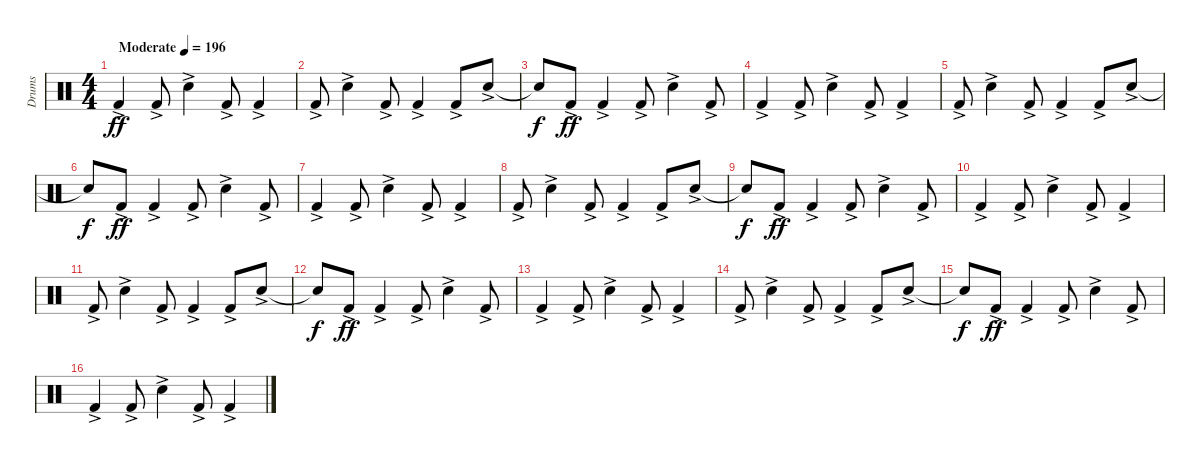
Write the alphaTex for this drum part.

\track ("Drums" "Drums") {instrument percussion}
\staff {score}
\articulation defaults
\ts (4 4)
\tempo (196 "Moderate")
\clef neutral
\ks c "Kick (hit) 2"{ac}.4{dy ff} "Kick (hit) 2"{ac}.8 "Electric Snare (hit)"{ac}.4 "Kick (hit) 2"{ac}.8 "Kick (hit) 2"{ac}.4
|
"Kick (hit) 2"{ac}.8 "Electric Snare (hit)"{ac}.4 "Kick (hit) 2"{ac}.8 "Kick (hit) 2"{ac}.4 "Kick (hit) 2"{ac}.8 "Electric Snare (hit)"{ac}.8 |
"Snare (hit)"{t}.8{dy f} "Kick (hit) 2"{ac}.8{dy ff} "Kick (hit) 2"{ac}.4 "Kick (hit) 2"{ac}.8 "Electric Snare (hit)"{ac}.4 "Kick (hit) 2"{ac}.8 |
"Kick (hit) 2"{ac}.4 "Kick (hit) 2"{ac}.8 "Electric Snare (hit)"{ac}.4 "Kick (hit) 2"{ac}.8 "Kick (hit) 2"{ac}.4 |
"Kick (hit) 2"{ac}.8 "Electric Snare (hit)"{ac}.4 "Kick (hit) 2"{ac}.8 "Kick (hit) 2"{ac}.4 "Kick (hit) 2"{ac}.8 "Electric Snare (hit)"{ac}.8 |
"Snare (hit)"{t}.8{dy f} "Kick (hit) 2"{ac}.8{dy ff} "Kick (hit) 2"{ac}.4 "Kick (hit) 2"{ac}.8 "Electric Snare (hit)"{ac}.4 "Kick (hit) 2"{ac}.8 |
"Kick (hit) 2"{ac}.4 "Kick (hit) 2"{ac}.8 "Electric Snare (hit)"{ac}.4 "Kick (hit) 2"{ac}.8 "Kick (hit) 2"{ac}.4 |
"Kick (hit) 2"{ac}.8 "Electric Snare (hit)"{ac}.4 "Kick (hit) 2"{ac}.8 "Kick (hit) 2"{ac}.4 "Kick (hit) 2"{ac}.8 "Electric Snare (hit)"{ac}.8 |
"Snare (hit)"{t}.8{dy f} "Kick (hit) 2"{ac}.8{dy ff} "Kick (hit) 2"{ac}.4 "Kick (hit) 2"{ac}.8 "Electric Snare (hit)"{ac}.4 "Kick (hit) 2"{ac}.8 |
"Kick (hit) 2"{ac}.4 "Kick (hit) 2"{ac}.8 "Electric Snare (hit)"{ac}.4 "Kick (hit) 2"{ac}.8 "Kick (hit) 2"{ac}.4 |
"Kick (hit) 2"{ac}.8 "Electric Snare (hit)"{ac}.4 "Kick (hit) 2"{ac}.8 "Kick (hit) 2"{ac}.4 "Kick (hit) 2"{ac}.8 "Electric Snare (hit)"{ac}.8 |
"Snare (hit)"{t}.8{dy f} "Kick (hit) 2"{ac}.8{dy ff} "Kick (hit) 2"{ac}.4 "Kick (hit) 2"{ac}.8 "Electric Snare (hit)"{ac}.4 "Kick (hit) 2"{ac}.8 |
"Kick (hit) 2"{ac}.4 "Kick (hit) 2"{ac}.8 "Electric Snare (hit)"{ac}.4 "Kick (hit) 2"{ac}.8 "Kick (hit) 2"{ac}.4 |
"Kick (hit) 2"{ac}.8 "Electric Snare (hit)"{ac}.4 "Kick (hit) 2"{ac}.8 "Kick (hit) 2"{ac}.4 "Kick (hit) 2"{ac}.8 "Electric Snare (hit)"{ac}.8 |
"Snare (hit)"{t}.8{dy f} "Kick (hit) 2"{ac}.8{dy ff} "Kick (hit) 2"{ac}.4 "Kick (hit) 2"{ac}.8 "Electric Snare (hit)"{ac}.4 "Kick (hit) 2"{ac}.8 |
"Kick (hit) 2"{ac}.4 "Kick (hit) 2"{ac}.8 "Electric Snare (hit)"{ac}.4 "Kick (hit) 2"{ac}.8 "Kick (hit) 2"{ac}.4
